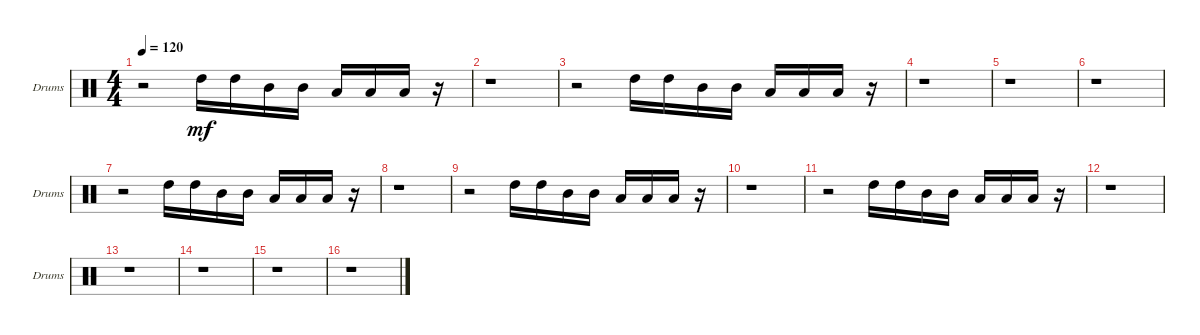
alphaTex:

\bracketExtendMode groupsimilarinstruments
\singleTrackTrackNamePolicy allsystems
\multiTrackTrackNamePolicy allsystems
\firstSystemTrackNameOrientation horizontal
\otherSystemsTrackNameOrientation horizontal
\track ("Toms" "Drums") {instrument percussion}
\staff {score}
\articulation defaults
\ts (4 4)
\tempo 120
\clef neutral
\scale
0.333333
\ks c
r.2{dy mf} "High Tom (hit)".16 "High Tom (hit)".16 "Mid Tom (hit)".16 "Mid Tom (hit)".16 "Low Tom (hit)".16 "Low Tom (hit)".16 "Low Tom (hit)".16 r.16 |
\scale
0.333333 r.1 |
\scale
0.333333 r.2 "High Tom (hit)".16 "High Tom (hit)".16 "Mid Tom (hit)".16 "Mid Tom (hit)".16 "Low Tom (hit)".16 "Low Tom (hit)".16 "Low Tom (hit)".16 r.16 |
\scale
0.333333 r.1 |
\scale
0.333333 r.1 |
\scale
0.333333 r.1 |
\scale
0.333333 r.2 "High Tom (hit)".16 "High Tom (hit)".16 "Mid Tom (hit)".16 "Mid Tom (hit)".16 "Low Tom (hit)".16 "Low Tom (hit)".16 "Low Tom (hit)".16 r.16 |
\scale
0.333333 r.1 |
\scale
0.333333 r.2 "High Tom (hit)".16 "High Tom (hit)".16 "Mid Tom (hit)".16 "Mid Tom (hit)".16 "Low Tom (hit)".16 "Low Tom (hit)".16 "Low Tom (hit)".16 r.16 |
\scale
0.333333 r.1 |
\scale
0.333333 r.2 "High Tom (hit)".16 "High Tom (hit)".16 "Mid Tom (hit)".16 "Mid Tom (hit)".16 "Low Tom (hit)".16 "Low Tom (hit)".16 "Low Tom (hit)".16 r.16 |
\scale
0.333333 r.1 |
\scale
0.333333 r.1 |
\scale
0.333333 r.1 |
\scale
0.333333 r.1 |
\scale
0.333333 r.1
